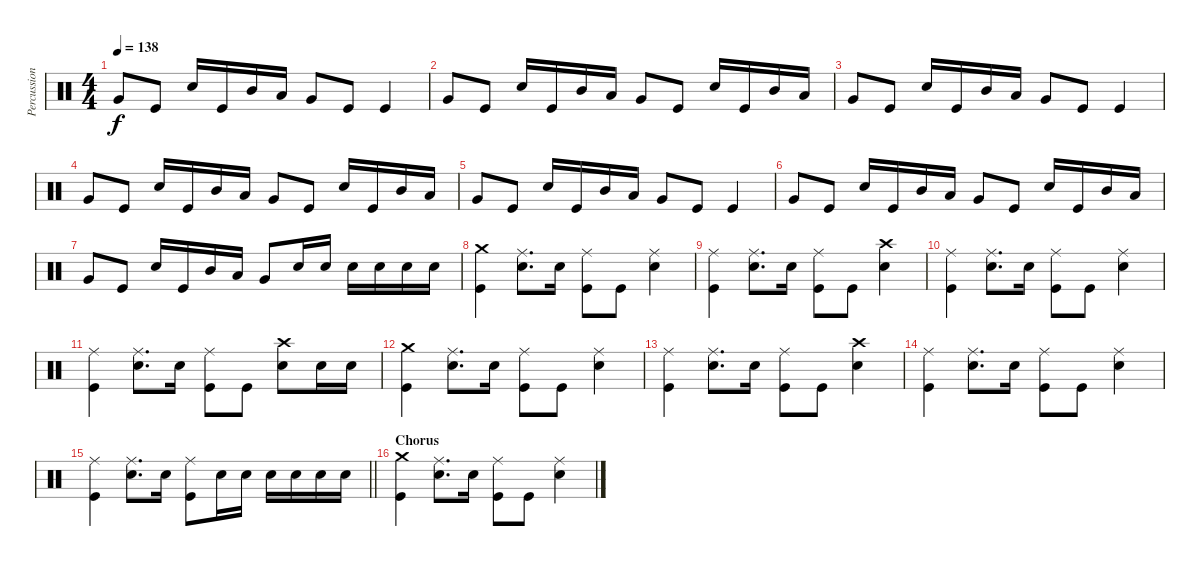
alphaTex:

\track ("Percussion" "Percussion") {instrument percussion}
\staff {score}
\articulation defaults
\ts (4 4)
\tempo 138
\clef neutral
\ks c "Very Low Tom (hit)".8{dy f} "Kick (hit)".8 "Electric Snare (hit)".16 "Kick (hit)".16 "Mid Tom (hit)".16 "Low Tom (hit)".16 "Very Low Tom (hit)".8 "Kick (hit)".8 "Kick (hit)".4
|
"Very Low Tom (hit)".8 "Kick (hit)".8 "Electric Snare (hit)".16 "Kick (hit)".16 "Mid Tom (hit)".16 "Low Tom (hit)".16 "Very Low Tom (hit)".8 "Kick (hit)".8 "Electric Snare (hit)".16 "Kick (hit)".16 "Mid Tom (hit)".16 "Low Tom (hit)".16 |
"Very Low Tom (hit)".8 "Kick (hit)".8 "Electric Snare (hit)".16 "Kick (hit)".16 "Mid Tom (hit)".16 "Low Tom (hit)".16 "Very Low Tom (hit)".8 "Kick (hit)".8 "Kick (hit)".4 |
"Very Low Tom (hit)".8 "Kick (hit)".8 "Electric Snare (hit)".16 "Kick (hit)".16 "Mid Tom (hit)".16 "Low Tom (hit)".16 "Very Low Tom (hit)".8 "Kick (hit)".8 "Electric Snare (hit)".16 "Kick (hit)".16 "Mid Tom (hit)".16 "Low Tom (hit)".16 |
"Very Low Tom (hit)".8 "Kick (hit)".8 "Electric Snare (hit)".16 "Kick (hit)".16 "Mid Tom (hit)".16 "Low Tom (hit)".16 "Very Low Tom (hit)".8 "Kick (hit)".8 "Kick (hit)".4 |
"Very Low Tom (hit)".8 "Kick (hit)".8 "Electric Snare (hit)".16 "Kick (hit)".16 "Mid Tom (hit)".16 "Low Tom (hit)".16 "Very Low Tom (hit)".8 "Kick (hit)".8 "Electric Snare (hit)".16 "Kick (hit)".16 "Mid Tom (hit)".16 "Low Tom (hit)".16 |
"Very Low Tom (hit)".8 "Kick (hit)".8 "Electric Snare (hit)".16 "Kick (hit)".16 "Mid Tom (hit)".16 "Low Tom (hit)".16 "Very Low Tom (hit)".8 "Electric Snare (hit)".16 "Electric Snare (hit)".16 "Electric Snare (hit)".16 "Electric Snare (hit)".16 "Electric Snare (hit)".16 "Electric Snare (hit)".16 |
("Crash medium (hit)" "Kick (hit)").4 ("Ride (middle)" "Electric Snare (hit)").8{d} "Electric Snare (hit)".16 ("Ride (middle)" "Kick (hit)").8 "Kick (hit)".8 ("Ride (middle)" "Electric Snare (hit)").4 |
("Ride (middle)" "Kick (hit)").4 ("Ride (middle)" "Electric Snare (hit)").8{d} "Electric Snare (hit)".16 ("Ride (middle)" "Kick (hit)").8 "Kick (hit)".8 ("Crash high (hit)" "Electric Snare (hit)").4 |
("Ride (middle)" "Kick (hit)").4 ("Ride (middle)" "Electric Snare (hit)").8{d} "Electric Snare (hit)".16 ("Ride (middle)" "Kick (hit)").8 "Kick (hit)".8 ("Ride (middle)" "Electric Snare (hit)").4 |
("Ride (middle)" "Kick (hit)").4 ("Ride (middle)" "Electric Snare (hit)").8{d} "Electric Snare (hit)".16 ("Ride (middle)" "Kick (hit)").8 "Kick (hit)".8 ("Crash high (hit)" "Electric Snare (hit)").8 "Electric Snare (hit)".16 "Electric Snare (hit)".16 |
("Crash medium (hit)" "Kick (hit)").4 ("Ride (middle)" "Electric Snare (hit)").8{d} "Electric Snare (hit)".16 ("Ride (middle)" "Kick (hit)").8 "Kick (hit)".8 ("Ride (middle)" "Electric Snare (hit)").4 |
("Ride (middle)" "Kick (hit)").4 ("Ride (middle)" "Electric Snare (hit)").8{d} "Electric Snare (hit)".16 ("Ride (middle)" "Kick (hit)").8 "Kick (hit)".8 ("Crash high (hit)" "Electric Snare (hit)").4 |
("Ride (middle)" "Kick (hit)").4 ("Ride (middle)" "Electric Snare (hit)").8{d} "Electric Snare (hit)".16 ("Ride (middle)" "Kick (hit)").8 "Kick (hit)".8 ("Ride (middle)" "Electric Snare (hit)").4 |
\barLineRight lightlight
("Ride (middle)" "Kick (hit)").4 ("Ride (middle)" "Electric Snare (hit)").8{d} "Electric Snare (hit)".16 ("Ride (middle)" "Kick (hit)").8 "Electric Snare (hit)".16 "Electric Snare (hit)".16 "Electric Snare (hit)".16 "Electric Snare (hit)".16 "Electric Snare (hit)".16 "Electric Snare (hit)".16 |
\section ("" "Chorus")
("Crash medium (hit)" "Kick (hit)").4 ("Ride (middle)" "Electric Snare (hit)").8{d} "Electric Snare (hit)".16 ("Ride (middle)" "Kick (hit)").8 "Kick (hit)".8 ("Ride (middle)" "Electric Snare (hit)").4
